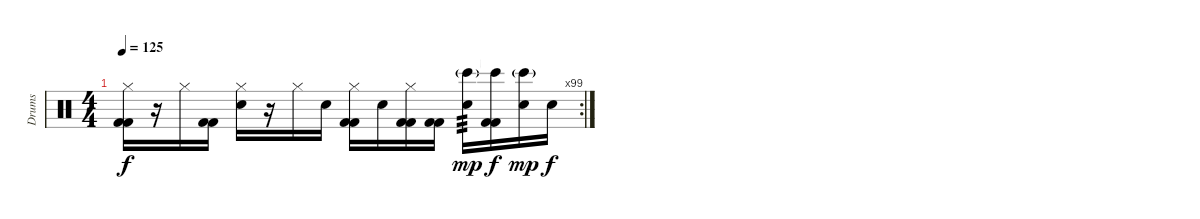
\track ("Drums" "Drums") {instrument percussion}
\staff {score}
\articulation defaults
\rc 99
\ts (4 4)
\tempo 125
\clef neutral
\ks c
("Hi-Hat (closed)" "Kick (hit) 2" "Kick (hit) 2").16{dy f} r.16 "Hi-Hat (closed)".16 ("Kick (hit) 2" "Kick (hit) 2").16 ("Hi-Hat (closed)" "Snare (hit) 2").16 r.16 "Hi-Hat (closed)".16 "Snare (hit) 2".16 ("Hi-Hat (closed)" "Kick (hit) 2" "Kick (hit) 2").16 "Snare (hit) 2".16 ("Hi-Hat (closed)" "Kick (hit) 2" "Kick (hit) 2").16 ("Kick (hit) 2" "Kick (hit) 2").16 ("Bongo High (hit)"{g} "Snare (hit) 2").16{tp 3 dy mp} ("Bongo High (hit)"{t} "Kick (hit) 2" "Kick (hit) 2").16{dy f} ("Bongo High (hit)"{g} "Snare (hit) 2").16{dy mp} "Snare (hit) 2".16{dy f}
